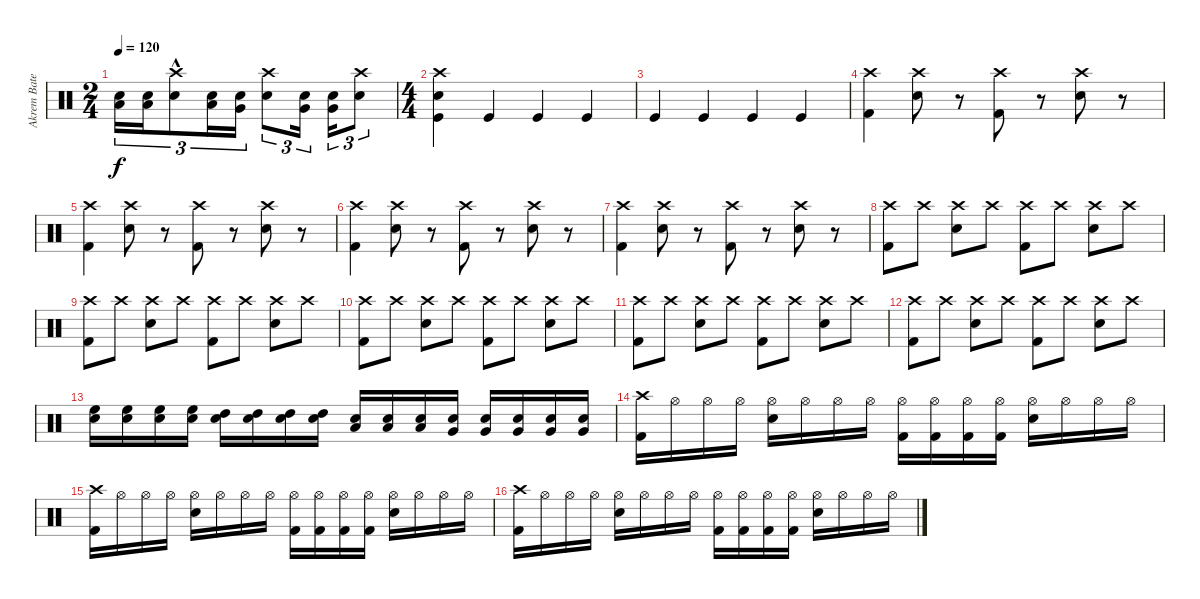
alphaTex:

\track ("Akrem Baterie" "Akrem Bate") {instrument percussion}
\staff {score}
\articulation defaults
\ts (2 4)
\tempo 120
\clef neutral
\ks c
("Low Tom (hit)" "Snare (hit) 2").16{tu (3 2) dy f} ("Low Tom (hit)" "Snare (hit) 2").16{tu (3 2)} ("Crash high (hit)"{hac} "Electric Snare (hit)"{hac}).8{tu (3 2)} ("Low Tom (hit)" "Snare (hit) 2").16{tu (3 2)} ("Very Low Tom (hit)" "Snare (hit) 2").16{tu (3 2)} ("Crash high (hit)" "Electric Snare (hit)").8{tu (3 2)} ("Very Low Tom (hit)" "Snare (hit) 2").16{tu (3 2)} ("Very Low Tom (hit)" "Snare (hit) 2").16{tu (3 2)} ("Crash high (hit)" "Electric Snare (hit)").8{tu (3 2)} |
\ts (4 4)
("Kick (hit)" "Crash high (hit)" "Electric Snare (hit)").4 "Kick (hit)".4 "Kick (hit)".4 "Kick (hit)".4 |
"Kick (hit)".4 "Kick (hit)".4 "Kick (hit)".4 "Kick (hit)".4 |
("Crash high (hit)" "Kick (hit) 2").4 ("Crash high (hit)" "Electric Snare (hit)").8 r.8 ("Crash high (hit)" "Kick (hit) 2").8 r.8 ("Crash high (hit)" "Electric Snare (hit)").8 r.8 |
("Crash high (hit)" "Kick (hit) 2").4 ("Crash high (hit)" "Electric Snare (hit)").8 r.8 ("Crash high (hit)" "Kick (hit) 2").8 r.8 ("Crash high (hit)" "Electric Snare (hit)").8 r.8 |
("Crash high (hit)" "Kick (hit) 2").4 ("Crash high (hit)" "Electric Snare (hit)").8 r.8 ("Crash high (hit)" "Kick (hit) 2").8 r.8 ("Crash high (hit)" "Electric Snare (hit)").8 r.8 |
("Crash high (hit)" "Kick (hit) 2").4 ("Crash high (hit)" "Electric Snare (hit)").8 r.8 ("Crash high (hit)" "Kick (hit) 2").8 r.8 ("Crash high (hit)" "Electric Snare (hit)").8 r.8 |
("Crash high (hit)" "Kick (hit) 2").8 "Crash high (hit)".8 ("Crash high (hit)" "Electric Snare (hit)").8 "Crash high (hit)".8 ("Crash high (hit)" "Kick (hit) 2").8 "Crash high (hit)".8 ("Crash high (hit)" "Electric Snare (hit)").8 "Crash high (hit)".8 |
("Crash high (hit)" "Kick (hit) 2").8 "Crash high (hit)".8 ("Crash high (hit)" "Electric Snare (hit)").8 "Crash high (hit)".8 ("Crash high (hit)" "Kick (hit) 2").8 "Crash high (hit)".8 ("Crash high (hit)" "Electric Snare (hit)").8 "Crash high (hit)".8 |
("Crash high (hit)" "Kick (hit) 2").8 "Crash high (hit)".8 ("Crash high (hit)" "Electric Snare (hit)").8 "Crash high (hit)".8 ("Crash high (hit)" "Kick (hit) 2").8 "Crash high (hit)".8 ("Crash high (hit)" "Electric Snare (hit)").8 "Crash high (hit)".8 |
("Crash high (hit)" "Kick (hit) 2").8 "Crash high (hit)".8 ("Crash high (hit)" "Electric Snare (hit)").8 "Crash high (hit)".8 ("Crash high (hit)" "Kick (hit) 2").8 "Crash high (hit)".8 ("Crash high (hit)" "Electric Snare (hit)").8 "Crash high (hit)".8 |
("Crash high (hit)" "Kick (hit) 2").8 "Crash high (hit)".8 ("Crash high (hit)" "Electric Snare (hit)").8 "Crash high (hit)".8 ("Crash high (hit)" "Kick (hit) 2").8 "Crash high (hit)".8 ("Crash high (hit)" "Electric Snare (hit)").8 "Crash high (hit)".8 |
("Snare (hit) 2" "High Floor Tom (hit)").16 ("Snare (hit) 2" "High Floor Tom (hit)").16 ("Snare (hit) 2" "High Floor Tom (hit)").16 ("Snare (hit) 2" "High Floor Tom (hit)").16 ("Snare (hit) 2" "High Tom (hit)").16 ("Snare (hit) 2" "High Tom (hit)").16 ("Snare (hit) 2" "High Tom (hit)").16 ("Snare (hit) 2" "High Tom (hit)").16 ("Snare (hit) 2" "Low Tom (hit)").16 ("Snare (hit) 2" "Low Tom (hit)").16 ("Snare (hit) 2" "Low Tom (hit)").16 ("Snare (hit) 2" "Very Low Tom (hit)").16 ("Snare (hit) 2" "Very Low Tom (hit)").16 ("Snare (hit) 2" "Very Low Tom (hit)").16 ("Snare (hit) 2" "Very Low Tom (hit)").16 ("Snare (hit) 2" "Very Low Tom (hit)").16 |
("Crash high (hit)" "Kick (hit) 2").16 "Hi-Hat (open)".16 "Hi-Hat (open)".16 "Hi-Hat (open)".16 ("Hi-Hat (open)" "Electric Snare (hit)").16 "Hi-Hat (open)".16 "Hi-Hat (open)".16 "Hi-Hat (open)".16 ("Hi-Hat (open)" "Kick (hit) 2").16 ("Hi-Hat (open)" "Kick (hit) 2").16 ("Hi-Hat (open)" "Kick (hit) 2").16 ("Hi-Hat (open)" "Kick (hit) 2").16 ("Hi-Hat (open)" "Electric Snare (hit)").16 "Hi-Hat (open)".16 "Hi-Hat (open)".16 "Hi-Hat (open)".16 |
("Crash high (hit)" "Kick (hit) 2").16 "Hi-Hat (open)".16 "Hi-Hat (open)".16 "Hi-Hat (open)".16 ("Hi-Hat (open)" "Electric Snare (hit)").16 "Hi-Hat (open)".16 "Hi-Hat (open)".16 "Hi-Hat (open)".16 ("Hi-Hat (open)" "Kick (hit) 2").16 ("Hi-Hat (open)" "Kick (hit) 2").16 ("Hi-Hat (open)" "Kick (hit) 2").16 ("Hi-Hat (open)" "Kick (hit) 2").16 ("Hi-Hat (open)" "Electric Snare (hit)").16 "Hi-Hat (open)".16 "Hi-Hat (open)".16 "Hi-Hat (open)".16 |
("Crash high (hit)" "Kick (hit) 2").16 "Hi-Hat (open)".16 "Hi-Hat (open)".16 "Hi-Hat (open)".16 ("Hi-Hat (open)" "Electric Snare (hit)").16 "Hi-Hat (open)".16 "Hi-Hat (open)".16 "Hi-Hat (open)".16 ("Hi-Hat (open)" "Kick (hit) 2").16 ("Hi-Hat (open)" "Kick (hit) 2").16 ("Hi-Hat (open)" "Kick (hit) 2").16 ("Hi-Hat (open)" "Kick (hit) 2").16 ("Hi-Hat (open)" "Electric Snare (hit)").16 "Hi-Hat (open)".16 "Hi-Hat (open)".16 "Hi-Hat (open)".16
